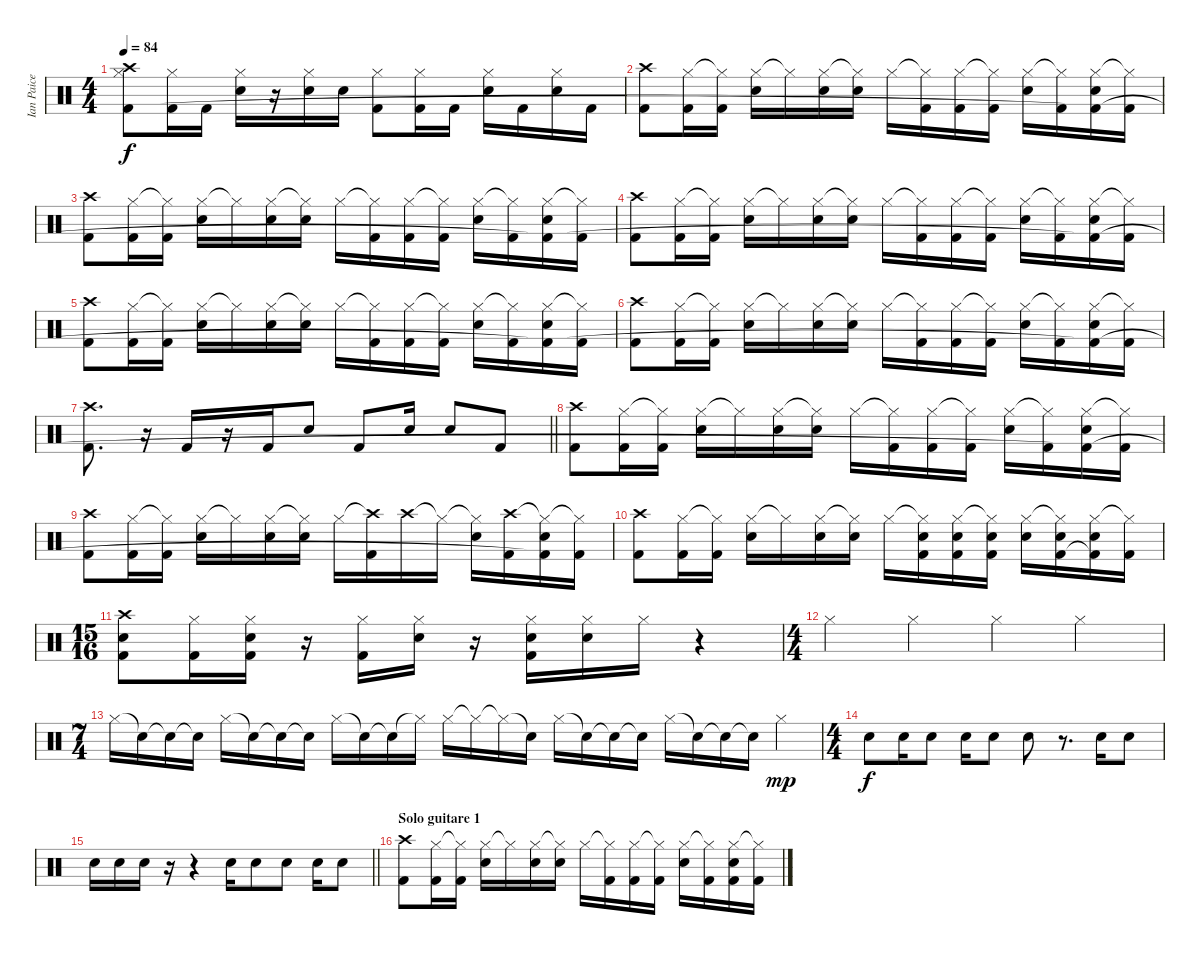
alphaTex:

\track ("Ian Paice" "Ian Paice") {instrument percussion}
\staff {score}
\articulation defaults
\ts (4 4)
\tempo 84
\clef neutral
\ks c
("Hi-Hat (closed)" "Crash high (hit)" "Kick (hit) 2").8{dy f} ("Hi-Hat (closed)" "Kick (hit) 2").16 "Kick (hit) 2".16 ("Hi-Hat (closed)" "Snare (hit) 2").16 r.16 ("Hi-Hat (closed)" "Snare (hit) 2").16 "Snare (hit) 2".16 ("Hi-Hat (closed)" "Kick (hit) 2").8 ("Hi-Hat (closed)" "Kick (hit) 2").16 "Kick (hit) 2".16 ("Hi-Hat (closed)" "Snare (hit) 2").16 "Kick (hit) 2".16 ("Hi-Hat (closed)" "Snare (hit) 2").16 "Kick (hit) 2".16 |
("Crash high (hit)" "Kick (hit) 2").8 ("Hi-Hat (closed)" "Kick (hit) 2").16 ("Hi-Hat (closed)"{t} "Kick (hit) 2").16 ("Hi-Hat (closed)" "Snare (hit) 2").16 "Hi-Hat (closed)"{t}.16 ("Hi-Hat (closed)" "Snare (hit) 2").16 ("Hi-Hat (closed)"{t} "Snare (hit) 2").16 "Hi-Hat (closed)".16 ("Hi-Hat (closed)"{t} "Kick (hit) 2").16 ("Hi-Hat (closed)" "Kick (hit) 2").16 ("Hi-Hat (closed)"{t} "Kick (hit) 2").16 ("Hi-Hat (closed)" "Snare (hit) 2").16 ("Hi-Hat (closed)"{t} "Kick (hit) 2").16 ("Hi-Hat (closed)" "Snare (hit) 2" "Kick (hit) 2"{t}).16 ("Hi-Hat (closed)"{t} "Kick (hit) 2").16 |
("Crash high (hit)" "Kick (hit) 2").8 ("Hi-Hat (closed)" "Kick (hit) 2").16 ("Hi-Hat (closed)"{t} "Kick (hit) 2").16 ("Hi-Hat (closed)" "Snare (hit) 2").16 "Hi-Hat (closed)"{t}.16 ("Hi-Hat (closed)" "Snare (hit) 2").16 ("Hi-Hat (closed)"{t} "Snare (hit) 2").16 "Hi-Hat (closed)".16 ("Hi-Hat (closed)"{t} "Kick (hit) 2").16 ("Hi-Hat (closed)" "Kick (hit) 2").16 ("Hi-Hat (closed)"{t} "Kick (hit) 2").16 ("Hi-Hat (closed)" "Snare (hit) 2").16 ("Hi-Hat (closed)"{t} "Kick (hit) 2").16 ("Hi-Hat (closed)" "Snare (hit) 2" "Kick (hit) 2"{t}).16 ("Hi-Hat (closed)"{t} "Kick (hit) 2").16 |
("Crash high (hit)" "Kick (hit) 2").8 ("Hi-Hat (closed)" "Kick (hit) 2").16 ("Hi-Hat (closed)"{t} "Kick (hit) 2").16 ("Hi-Hat (closed)" "Snare (hit) 2").16 "Hi-Hat (closed)"{t}.16 ("Hi-Hat (closed)" "Snare (hit) 2").16 ("Hi-Hat (closed)"{t} "Snare (hit) 2").16 "Hi-Hat (closed)".16 ("Hi-Hat (closed)"{t} "Kick (hit) 2").16 ("Hi-Hat (closed)" "Kick (hit) 2").16 ("Hi-Hat (closed)"{t} "Kick (hit) 2").16 ("Hi-Hat (closed)" "Snare (hit) 2").16 ("Hi-Hat (closed)"{t} "Kick (hit) 2").16 ("Hi-Hat (closed)" "Snare (hit) 2" "Kick (hit) 2"{t}).16 ("Hi-Hat (closed)"{t} "Kick (hit) 2").16 |
("Crash high (hit)" "Kick (hit) 2").8 ("Hi-Hat (closed)" "Kick (hit) 2").16 ("Hi-Hat (closed)"{t} "Kick (hit) 2").16 ("Hi-Hat (closed)" "Snare (hit) 2").16 "Hi-Hat (closed)"{t}.16 ("Hi-Hat (closed)" "Snare (hit) 2").16 ("Hi-Hat (closed)"{t} "Snare (hit) 2").16 "Hi-Hat (closed)".16 ("Hi-Hat (closed)"{t} "Kick (hit) 2").16 ("Hi-Hat (closed)" "Kick (hit) 2").16 ("Hi-Hat (closed)"{t} "Kick (hit) 2").16 ("Hi-Hat (closed)" "Snare (hit) 2").16 ("Hi-Hat (closed)"{t} "Kick (hit) 2").16 ("Hi-Hat (closed)" "Snare (hit) 2" "Kick (hit) 2"{t}).16 ("Hi-Hat (closed)"{t} "Kick (hit) 2").16 |
("Crash high (hit)" "Kick (hit) 2").8 ("Hi-Hat (closed)" "Kick (hit) 2").16 ("Hi-Hat (closed)"{t} "Kick (hit) 2").16 ("Hi-Hat (closed)" "Snare (hit) 2").16 "Hi-Hat (closed)"{t}.16 ("Hi-Hat (closed)" "Snare (hit) 2").16 ("Hi-Hat (closed)"{t} "Snare (hit) 2").16 "Hi-Hat (closed)".16 ("Hi-Hat (closed)"{t} "Kick (hit) 2").16 ("Hi-Hat (closed)" "Kick (hit) 2").16 ("Hi-Hat (closed)"{t} "Kick (hit) 2").16 ("Hi-Hat (closed)" "Snare (hit) 2").16 ("Hi-Hat (closed)"{t} "Kick (hit) 2").16 ("Hi-Hat (closed)" "Snare (hit) 2" "Kick (hit) 2"{t}).16 ("Hi-Hat (closed)"{t} "Kick (hit) 2").16 |
\barLineRight lightlight
("Crash high (hit)" "Kick (hit) 2").8{d} r.16 "Kick (hit) 2".16 r.16 "Kick (hit) 2".16 "Snare (hit) 2".8 "Kick (hit) 2".8 "Snare (hit) 2".16 "Snare (hit) 2".8 "Kick (hit) 2".8 |
("Crash high (hit)" "Kick (hit) 2").8 ("Hi-Hat (closed)" "Kick (hit) 2").16 ("Hi-Hat (closed)"{t} "Kick (hit) 2").16 ("Hi-Hat (closed)" "Snare (hit) 2").16 "Hi-Hat (closed)"{t}.16 ("Hi-Hat (closed)" "Snare (hit) 2").16 ("Hi-Hat (closed)"{t} "Snare (hit) 2").16 "Hi-Hat (closed)".16 ("Hi-Hat (closed)"{t} "Kick (hit) 2").16 ("Hi-Hat (closed)" "Kick (hit) 2").16 ("Hi-Hat (closed)"{t} "Kick (hit) 2").16 ("Hi-Hat (closed)" "Snare (hit) 2").16 ("Hi-Hat (closed)"{t} "Kick (hit) 2").16 ("Hi-Hat (closed)" "Snare (hit) 2" "Kick (hit) 2"{t}).16 ("Hi-Hat (closed)"{t} "Kick (hit) 2").16 |
("Crash high (hit)" "Kick (hit) 2").8 ("Hi-Hat (closed)" "Kick (hit) 2").16 ("Hi-Hat (closed)"{t} "Kick (hit) 2").16 ("Hi-Hat (closed)" "Snare (hit) 2").16 "Hi-Hat (closed)"{t}.16 ("Hi-Hat (closed)" "Snare (hit) 2").16 ("Hi-Hat (closed)"{t} "Snare (hit) 2").16 "Hi-Hat (closed)".16 ("Crash high (hit)"{t} "Kick (hit) 2").16 "Crash high (hit)".16 "Hi-Hat (closed)"{t}.16 ("Hi-Hat (closed)"{t} "Snare (hit) 2").16 ("Crash high (hit)" "Kick (hit) 2").16 ("Hi-Hat (closed)"{t} "Snare (hit) 2" "Kick (hit) 2"{t}).16 ("Hi-Hat (closed)"{t} "Kick (hit) 2").16 |
("Crash high (hit)" "Kick (hit) 2").8 ("Hi-Hat (closed)" "Kick (hit) 2").16 ("Hi-Hat (closed)"{t} "Kick (hit) 2").16 ("Hi-Hat (closed)" "Snare (hit) 2").16 "Hi-Hat (closed)"{t}.16 ("Hi-Hat (closed)" "Snare (hit) 2").16 ("Hi-Hat (closed)"{t} "Snare (hit) 2").16 "Hi-Hat (closed)".16 ("Hi-Hat (closed)"{t} "Snare (hit) 2" "Kick (hit) 2").16 ("Hi-Hat (closed)" "Snare (hit) 2" "Kick (hit) 2").16 ("Hi-Hat (closed)"{t} "Snare (hit) 2" "Kick (hit) 2").16 ("Hi-Hat (closed)" "Snare (hit) 2").16 ("Hi-Hat (closed)"{t} "Snare (hit) 2" "Kick (hit) 2").16 ("Hi-Hat (closed)" "Snare (hit) 2" "Kick (hit) 2"{t}).16 ("Hi-Hat (closed)"{t} "Kick (hit) 2").16 |
\ts (15 16)
("Crash high (hit)" "Snare (hit) 2" "Kick (hit) 2").8 ("Hi-Hat (closed)" "Kick (hit) 2").16 ("Hi-Hat (closed)" "Snare (hit) 2" "Kick (hit) 2").16 r.16 ("Hi-Hat (closed)" "Kick (hit) 2").16 ("Hi-Hat (closed)" "Snare (hit) 2").16 r.16 ("Hi-Hat (closed)" "Snare (hit) 2" "Kick (hit) 2").16 ("Hi-Hat (closed)" "Snare (hit) 2").16 "Hi-Hat (closed)".16 r.4 |
\ts (4 4)
"Hi-Hat (closed)".4 "Hi-Hat (closed)".4 "Hi-Hat (closed)".4 "Hi-Hat (closed)".4 |
\ts (7 4)
"Hi-Hat (closed)".16 "Snare (hit)"{t}.16 "Snare (hit)"{t}.16 "Snare (hit)"{t}.16 "Hi-Hat (closed)".16 "Snare (hit)"{t}.16 "Snare (hit)"{t}.16 "Snare (hit)"{t}.16 "Hi-Hat (closed)".16 "Snare (hit)"{t}.16 "Snare (hit)"{t}.16 "Hi-Hat (closed)"{t}.16 "Hi-Hat (closed)".16 "Hi-Hat (closed)"{t}.16 "Hi-Hat (closed)"{t}.16 "Snare (hit)"{t}.16 "Hi-Hat (closed)".16 "Snare (hit)"{t}.16 "Snare (hit)"{t}.16 "Snare (hit)"{t}.16 "Hi-Hat (closed)".16 "Snare (hit)"{t}.16 "Snare (hit)"{t}.16 "Snare (hit)"{t}.16 "Hi-Hat (closed)".4{dy mp} |
\ts (4 4)
"Snare (hit) 2".8{dy f} "Snare (hit) 2".16 "Snare (hit) 2".8 "Snare (hit) 2".16 "Snare (hit) 2".8 "Snare (hit) 2".8 r.8{d} "Snare (hit) 2".16 "Snare (hit) 2".8 |
\barLineRight lightlight "Snare (hit) 2".16 "Snare (hit) 2".16 "Snare (hit) 2".16
r.16 r.4 "Snare (hit) 2".16 "Snare (hit) 2".8 "Snare (hit) 2".8 "Snare (hit) 2".16 "Snare (hit) 2".8 |
\section ("" "Solo guitare 1")
("Crash high (hit)" "Kick (hit) 2").8 ("Hi-Hat (closed)" "Kick (hit) 2").16 ("Hi-Hat (closed)"{t} "Kick (hit) 2").16 ("Hi-Hat (closed)" "Snare (hit) 2").16 "Hi-Hat (closed)"{t}.16 ("Hi-Hat (closed)" "Snare (hit) 2").16 ("Hi-Hat (closed)"{t} "Snare (hit) 2").16 "Hi-Hat (closed)".16 ("Hi-Hat (closed)"{t} "Kick (hit) 2").16 ("Hi-Hat (closed)" "Kick (hit) 2").16 ("Hi-Hat (closed)"{t} "Kick (hit) 2").16 ("Hi-Hat (closed)" "Snare (hit) 2").16 ("Hi-Hat (closed)"{t} "Kick (hit) 2").16 ("Hi-Hat (closed)" "Snare (hit) 2" "Kick (hit) 2").16 ("Hi-Hat (closed)"{t} "Kick (hit) 2").16
